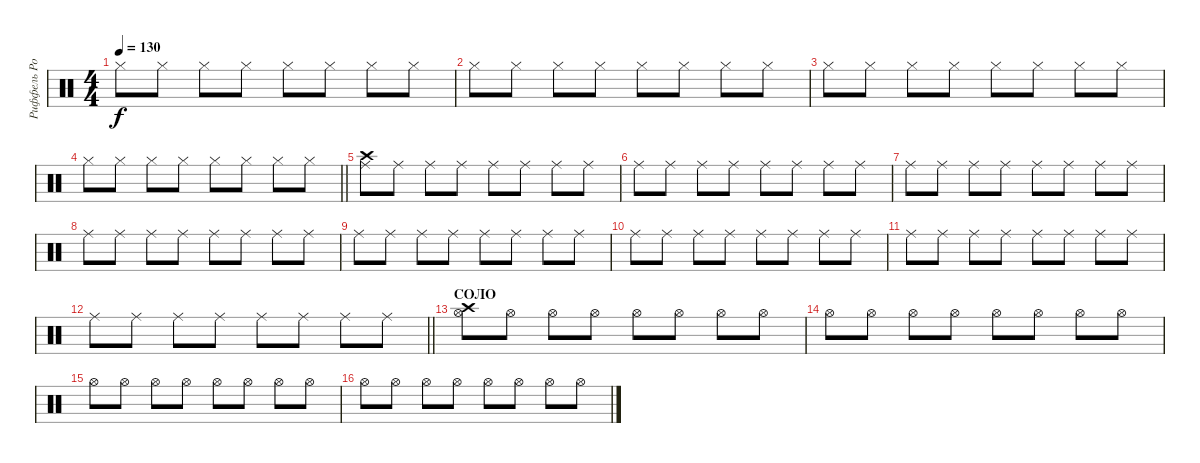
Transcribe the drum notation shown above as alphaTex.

\track ("Риффель Роман (хэты)" "Риффель Ро") {instrument percussion}
\staff {score}
\articulation defaults
\ts (4 4)
\tempo 130
\clef neutral
\ks c "Hi-Hat (closed)".8{dy f} "Hi-Hat (closed)".8 "Hi-Hat (closed)".8 "Hi-Hat (closed)".8 "Hi-Hat (closed)".8 "Hi-Hat (closed)".8 "Hi-Hat (closed)".8 "Hi-Hat (closed)".8
|
"Hi-Hat (closed)".8 "Hi-Hat (closed)".8 "Hi-Hat (closed)".8 "Hi-Hat (closed)".8 "Hi-Hat (closed)".8 "Hi-Hat (closed)".8 "Hi-Hat (closed)".8 "Hi-Hat (closed)".8 |
"Hi-Hat (closed)".8 "Hi-Hat (closed)".8 "Hi-Hat (closed)".8 "Hi-Hat (closed)".8 "Hi-Hat (closed)".8 "Hi-Hat (closed)".8 "Hi-Hat (closed)".8 "Hi-Hat (closed)".8 |
\barLineRight lightlight "Hi-Hat (closed)".8 "Hi-Hat (closed)".8 "Hi-Hat (closed)".8 "Hi-Hat (closed)".8 "Hi-Hat (closed)".8 "Hi-Hat (closed)".8 "Hi-Hat (closed)".8 "Hi-Hat (closed)".8
|
("Crash high (hit)" "Ride (middle)").8 "Ride (middle)".8 "Ride (middle)".8 "Ride (middle)".8 "Ride (middle)".8 "Ride (middle)".8 "Ride (middle)".8 "Ride (middle)".8 |
"Ride (middle)".8 "Ride (middle)".8 "Ride (middle)".8 "Ride (middle)".8 "Ride (middle)".8 "Ride (middle)".8 "Ride (middle)".8 "Ride (middle)".8 |
"Ride (middle)".8 "Ride (middle)".8 "Ride (middle)".8 "Ride (middle)".8 "Ride (middle)".8 "Ride (middle)".8 "Ride (middle)".8 "Ride (middle)".8 |
"Ride (middle)".8 "Ride (middle)".8 "Ride (middle)".8 "Ride (middle)".8 "Ride (middle)".8 "Ride (middle)".8 "Ride (middle)".8 "Ride (middle)".8 |
"Ride (middle)".8 "Ride (middle)".8 "Ride (middle)".8 "Ride (middle)".8 "Ride (middle)".8 "Ride (middle)".8 "Ride (middle)".8 "Ride (middle)".8 |
"Ride (middle)".8 "Ride (middle)".8 "Ride (middle)".8 "Ride (middle)".8 "Ride (middle)".8 "Ride (middle)".8 "Ride (middle)".8 "Ride (middle)".8 |
"Ride (middle)".8 "Ride (middle)".8 "Ride (middle)".8 "Ride (middle)".8 "Ride (middle)".8 "Ride (middle)".8 "Ride (middle)".8 "Ride (middle)".8 |
\barLineRight lightlight "Ride (middle)".8 "Ride (middle)".8 "Ride (middle)".8 "Ride (middle)".8 "Ride (middle)".8 "Ride (middle)".8 "Ride (middle)".8 "Ride (middle)".8
|
\section ("" "СОЛО")
("Crash high (hit)" "Hi-Hat (open)").8 "Hi-Hat (open)".8 "Hi-Hat (open)".8 "Hi-Hat (open)".8 "Hi-Hat (open)".8 "Hi-Hat (open)".8 "Hi-Hat (open)".8 "Hi-Hat (open)".8 |
"Hi-Hat (open)".8 "Hi-Hat (open)".8 "Hi-Hat (open)".8 "Hi-Hat (open)".8 "Hi-Hat (open)".8 "Hi-Hat (open)".8 "Hi-Hat (open)".8 "Hi-Hat (open)".8 |
"Hi-Hat (open)".8 "Hi-Hat (open)".8 "Hi-Hat (open)".8 "Hi-Hat (open)".8 "Hi-Hat (open)".8 "Hi-Hat (open)".8 "Hi-Hat (open)".8 "Hi-Hat (open)".8 |
"Hi-Hat (open)".8 "Hi-Hat (open)".8 "Hi-Hat (open)".8 "Hi-Hat (open)".8 "Hi-Hat (open)".8 "Hi-Hat (open)".8 "Hi-Hat (open)".8 "Hi-Hat (open)".8
